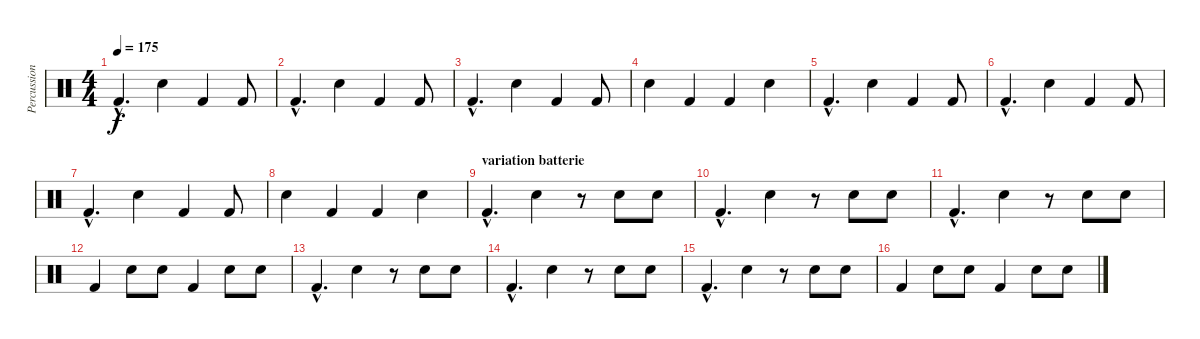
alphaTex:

\track ("Percussions" "Percussion") {instrument percussion}
\staff {score}
\articulation defaults
\ts (4 4)
\tempo 175
\clef neutral
\ks c "Kick (hit) 2"{hac}.4{d dy f} "Snare (hit) 2".4 "Kick (hit) 2".4 "Kick (hit) 2".8
|
"Kick (hit) 2"{hac}.4{d} "Snare (hit) 2".4 "Kick (hit) 2".4 "Kick (hit) 2".8 |
"Kick (hit) 2"{hac}.4{d} "Snare (hit) 2".4 "Kick (hit) 2".4 "Kick (hit) 2".8 |
"Snare (hit) 2".4 "Kick (hit) 2".4 "Kick (hit) 2".4 "Snare (hit) 2".4 |
"Kick (hit) 2"{hac}.4{d} "Snare (hit) 2".4 "Kick (hit) 2".4 "Kick (hit) 2".8 |
"Kick (hit) 2"{hac}.4{d} "Snare (hit) 2".4 "Kick (hit) 2".4 "Kick (hit) 2".8 |
"Kick (hit) 2"{hac}.4{d} "Snare (hit) 2".4 "Kick (hit) 2".4 "Kick (hit) 2".8 |
"Snare (hit) 2".4 "Kick (hit) 2".4 "Kick (hit) 2".4 "Snare (hit) 2".4 |
\section ("" "variation batterie")
"Kick (hit) 2"{hac}.4{d} "Snare (hit) 2".4 r.8 "Snare (hit) 2".8 "Snare (hit) 2".8 |
"Kick (hit) 2"{hac}.4{d} "Snare (hit) 2".4 r.8 "Snare (hit) 2".8 "Snare (hit) 2".8 |
"Kick (hit) 2"{hac}.4{d} "Snare (hit) 2".4 r.8 "Snare (hit) 2".8 "Snare (hit) 2".8 |
"Kick (hit) 2".4 "Snare (hit) 2".8 "Snare (hit) 2".8 "Kick (hit) 2".4 "Snare (hit) 2".8 "Snare (hit) 2".8 |
"Kick (hit) 2"{hac}.4{d} "Snare (hit) 2".4 r.8 "Snare (hit) 2".8 "Snare (hit) 2".8 |
"Kick (hit) 2"{hac}.4{d} "Snare (hit) 2".4 r.8 "Snare (hit) 2".8 "Snare (hit) 2".8 |
"Kick (hit) 2"{hac}.4{d} "Snare (hit) 2".4 r.8 "Snare (hit) 2".8 "Snare (hit) 2".8 |
"Kick (hit) 2".4 "Snare (hit) 2".8 "Snare (hit) 2".8 "Kick (hit) 2".4 "Snare (hit) 2".8 "Snare (hit) 2".8
